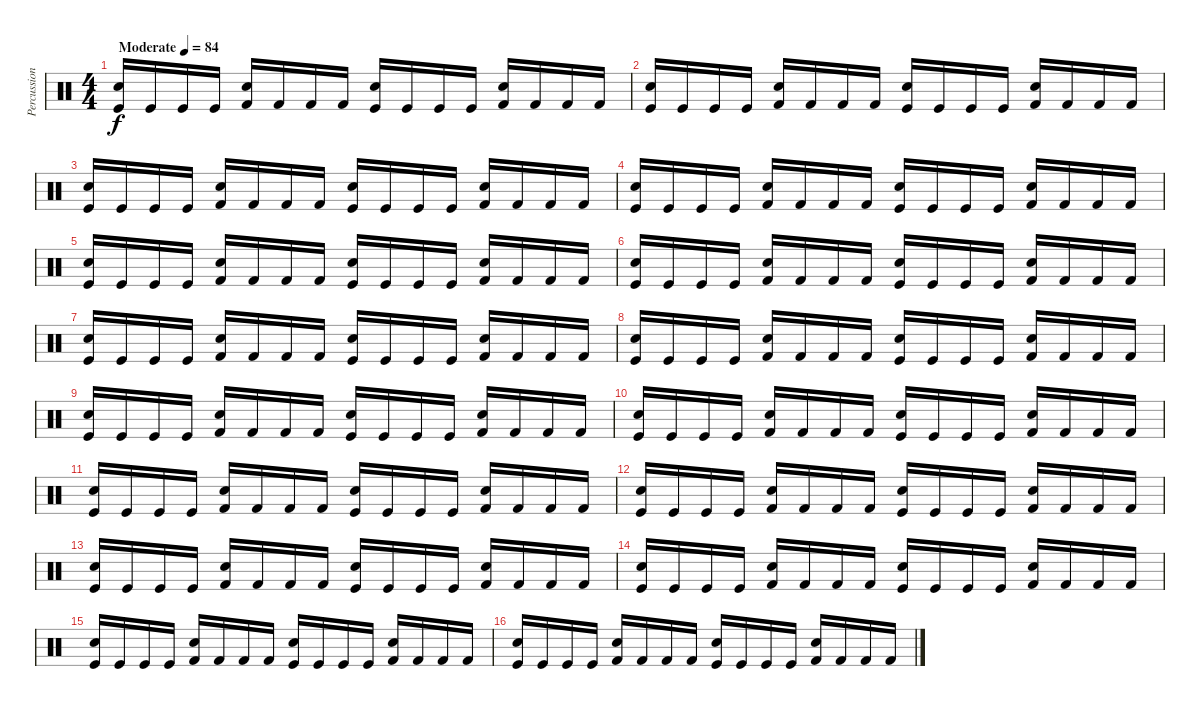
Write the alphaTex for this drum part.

\track ("Percussion" "Percussion") {instrument percussion}
\staff {score}
\articulation defaults
\ts (4 4)
\tempo (84 "Moderate")
\clef neutral
\ks c
("Snare (hit) 2" "Kick (hit)").16{dy f} "Kick (hit)".16 "Kick (hit)".16 "Kick (hit)".16 ("Electric Snare (hit)" "Kick (hit) 2").16 "Kick (hit) 2".16 "Kick (hit) 2".16 "Kick (hit) 2".16 ("Snare (hit) 2" "Kick (hit)").16 "Kick (hit)".16 "Kick (hit)".16 "Kick (hit)".16 ("Electric Snare (hit)" "Kick (hit) 2").16 "Kick (hit) 2".16 "Kick (hit) 2".16 "Kick (hit) 2".16 |
("Snare (hit) 2" "Kick (hit)").16 "Kick (hit)".16 "Kick (hit)".16 "Kick (hit)".16 ("Electric Snare (hit)" "Kick (hit) 2").16 "Kick (hit) 2".16 "Kick (hit) 2".16 "Kick (hit) 2".16 ("Snare (hit) 2" "Kick (hit)").16 "Kick (hit)".16 "Kick (hit)".16 "Kick (hit)".16 ("Electric Snare (hit)" "Kick (hit) 2").16 "Kick (hit) 2".16 "Kick (hit) 2".16 "Kick (hit) 2".16 |
("Snare (hit) 2" "Kick (hit)").16 "Kick (hit)".16 "Kick (hit)".16 "Kick (hit)".16 ("Electric Snare (hit)" "Kick (hit) 2").16 "Kick (hit) 2".16 "Kick (hit) 2".16 "Kick (hit) 2".16 ("Snare (hit) 2" "Kick (hit)").16 "Kick (hit)".16 "Kick (hit)".16 "Kick (hit)".16 ("Electric Snare (hit)" "Kick (hit) 2").16 "Kick (hit) 2".16 "Kick (hit) 2".16 "Kick (hit) 2".16 |
("Snare (hit) 2" "Kick (hit)").16 "Kick (hit)".16 "Kick (hit)".16 "Kick (hit)".16 ("Electric Snare (hit)" "Kick (hit) 2").16 "Kick (hit) 2".16 "Kick (hit) 2".16 "Kick (hit) 2".16 ("Snare (hit) 2" "Kick (hit)").16 "Kick (hit)".16 "Kick (hit)".16 "Kick (hit)".16 ("Electric Snare (hit)" "Kick (hit) 2").16 "Kick (hit) 2".16 "Kick (hit) 2".16 "Kick (hit) 2".16 |
("Snare (hit) 2" "Kick (hit)").16 "Kick (hit)".16 "Kick (hit)".16 "Kick (hit)".16 ("Electric Snare (hit)" "Kick (hit) 2").16 "Kick (hit) 2".16 "Kick (hit) 2".16 "Kick (hit) 2".16 ("Snare (hit) 2" "Kick (hit)").16 "Kick (hit)".16 "Kick (hit)".16 "Kick (hit)".16 ("Electric Snare (hit)" "Kick (hit) 2").16 "Kick (hit) 2".16 "Kick (hit) 2".16 "Kick (hit) 2".16 |
("Snare (hit) 2" "Kick (hit)").16 "Kick (hit)".16 "Kick (hit)".16 "Kick (hit)".16 ("Electric Snare (hit)" "Kick (hit) 2").16 "Kick (hit) 2".16 "Kick (hit) 2".16 "Kick (hit) 2".16 ("Snare (hit) 2" "Kick (hit)").16 "Kick (hit)".16 "Kick (hit)".16 "Kick (hit)".16 ("Electric Snare (hit)" "Kick (hit) 2").16 "Kick (hit) 2".16 "Kick (hit) 2".16 "Kick (hit) 2".16 |
("Snare (hit) 2" "Kick (hit)").16 "Kick (hit)".16 "Kick (hit)".16 "Kick (hit)".16 ("Electric Snare (hit)" "Kick (hit) 2").16 "Kick (hit) 2".16 "Kick (hit) 2".16 "Kick (hit) 2".16 ("Snare (hit) 2" "Kick (hit)").16 "Kick (hit)".16 "Kick (hit)".16 "Kick (hit)".16 ("Electric Snare (hit)" "Kick (hit) 2").16 "Kick (hit) 2".16 "Kick (hit) 2".16 "Kick (hit) 2".16 |
("Snare (hit) 2" "Kick (hit)").16 "Kick (hit)".16 "Kick (hit)".16 "Kick (hit)".16 ("Electric Snare (hit)" "Kick (hit) 2").16 "Kick (hit) 2".16 "Kick (hit) 2".16 "Kick (hit) 2".16 ("Snare (hit) 2" "Kick (hit)").16 "Kick (hit)".16 "Kick (hit)".16 "Kick (hit)".16 ("Electric Snare (hit)" "Kick (hit) 2").16 "Kick (hit) 2".16 "Kick (hit) 2".16 "Kick (hit) 2".16 |
("Snare (hit) 2" "Kick (hit)").16 "Kick (hit)".16 "Kick (hit)".16 "Kick (hit)".16 ("Electric Snare (hit)" "Kick (hit) 2").16 "Kick (hit) 2".16 "Kick (hit) 2".16 "Kick (hit) 2".16 ("Snare (hit) 2" "Kick (hit)").16 "Kick (hit)".16 "Kick (hit)".16 "Kick (hit)".16 ("Electric Snare (hit)" "Kick (hit) 2").16 "Kick (hit) 2".16 "Kick (hit) 2".16 "Kick (hit) 2".16 |
("Snare (hit) 2" "Kick (hit)").16 "Kick (hit)".16 "Kick (hit)".16 "Kick (hit)".16 ("Electric Snare (hit)" "Kick (hit) 2").16 "Kick (hit) 2".16 "Kick (hit) 2".16 "Kick (hit) 2".16 ("Snare (hit) 2" "Kick (hit)").16 "Kick (hit)".16 "Kick (hit)".16 "Kick (hit)".16 ("Electric Snare (hit)" "Kick (hit) 2").16 "Kick (hit) 2".16 "Kick (hit) 2".16 "Kick (hit) 2".16 |
("Snare (hit) 2" "Kick (hit)").16 "Kick (hit)".16 "Kick (hit)".16 "Kick (hit)".16 ("Electric Snare (hit)" "Kick (hit) 2").16 "Kick (hit) 2".16 "Kick (hit) 2".16 "Kick (hit) 2".16 ("Snare (hit) 2" "Kick (hit)").16 "Kick (hit)".16 "Kick (hit)".16 "Kick (hit)".16 ("Electric Snare (hit)" "Kick (hit) 2").16 "Kick (hit) 2".16 "Kick (hit) 2".16 "Kick (hit) 2".16 |
("Snare (hit) 2" "Kick (hit)").16 "Kick (hit)".16 "Kick (hit)".16 "Kick (hit)".16 ("Electric Snare (hit)" "Kick (hit) 2").16 "Kick (hit) 2".16 "Kick (hit) 2".16 "Kick (hit) 2".16 ("Snare (hit) 2" "Kick (hit)").16 "Kick (hit)".16 "Kick (hit)".16 "Kick (hit)".16 ("Electric Snare (hit)" "Kick (hit) 2").16 "Kick (hit) 2".16 "Kick (hit) 2".16 "Kick (hit) 2".16 |
("Snare (hit) 2" "Kick (hit)").16 "Kick (hit)".16 "Kick (hit)".16 "Kick (hit)".16 ("Electric Snare (hit)" "Kick (hit) 2").16 "Kick (hit) 2".16 "Kick (hit) 2".16 "Kick (hit) 2".16 ("Snare (hit) 2" "Kick (hit)").16 "Kick (hit)".16 "Kick (hit)".16 "Kick (hit)".16 ("Electric Snare (hit)" "Kick (hit) 2").16 "Kick (hit) 2".16 "Kick (hit) 2".16 "Kick (hit) 2".16 |
("Snare (hit) 2" "Kick (hit)").16 "Kick (hit)".16 "Kick (hit)".16 "Kick (hit)".16 ("Electric Snare (hit)" "Kick (hit) 2").16 "Kick (hit) 2".16 "Kick (hit) 2".16 "Kick (hit) 2".16 ("Snare (hit) 2" "Kick (hit)").16 "Kick (hit)".16 "Kick (hit)".16 "Kick (hit)".16 ("Electric Snare (hit)" "Kick (hit) 2").16 "Kick (hit) 2".16 "Kick (hit) 2".16 "Kick (hit) 2".16 |
("Snare (hit) 2" "Kick (hit)").16 "Kick (hit)".16 "Kick (hit)".16 "Kick (hit)".16 ("Electric Snare (hit)" "Kick (hit) 2").16 "Kick (hit) 2".16 "Kick (hit) 2".16 "Kick (hit) 2".16 ("Snare (hit) 2" "Kick (hit)").16 "Kick (hit)".16 "Kick (hit)".16 "Kick (hit)".16 ("Electric Snare (hit)" "Kick (hit) 2").16 "Kick (hit) 2".16 "Kick (hit) 2".16 "Kick (hit) 2".16 |
("Snare (hit) 2" "Kick (hit)").16 "Kick (hit)".16 "Kick (hit)".16 "Kick (hit)".16 ("Electric Snare (hit)" "Kick (hit) 2").16 "Kick (hit) 2".16 "Kick (hit) 2".16 "Kick (hit) 2".16 ("Snare (hit) 2" "Kick (hit)").16 "Kick (hit)".16 "Kick (hit)".16 "Kick (hit)".16 ("Electric Snare (hit)" "Kick (hit) 2").16 "Kick (hit) 2".16 "Kick (hit) 2".16 "Kick (hit) 2".16
